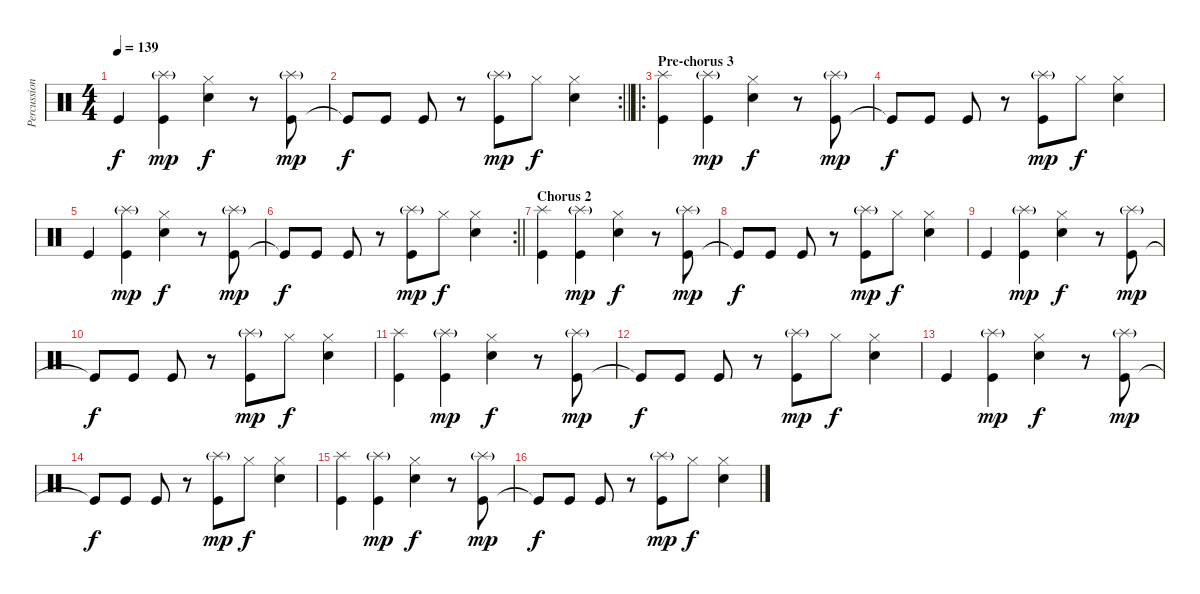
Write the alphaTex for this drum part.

\track ("Percussion" "Percussion") {instrument percussion}
\staff {score}
\articulation defaults
\ts (4 4)
\tempo 139
\clef neutral
\ks c "Kick (hit)".4{dy f}
("Kick (hit)" "Splash (hit)"{g}).4{dy mp} ("Snare (hit) 2" "Hi-Hat (closed)").4{dy f} r.8 ("Kick (hit)" "Splash (hit)"{g}).8{dy mp} |
\rc 2
\barLineRight lightlight "Kick (hit)"{t}.8{dy f} "Kick (hit)".8 "Kick (hit)".8
r.8 ("Kick (hit)" "Splash (hit)"{g}).8{dy mp} "Hi-Hat (closed)".8{dy f} ("Snare (hit) 2" "Hi-Hat (closed)").4 |
\ro
\section ("" "Pre-chorus 3")
("Kick (hit)" "Splash (hit)").4 ("Kick (hit)" "Splash (hit)"{g}).4{dy mp} ("Snare (hit) 2" "Hi-Hat (closed)").4{dy f} r.8 ("Kick (hit)" "Splash (hit)"{g}).8{dy mp} |
"Kick (hit)"{t}.8{dy f} "Kick (hit)".8 "Kick (hit)".8 r.8 ("Kick (hit)" "Splash (hit)"{g}).8{dy mp} "Hi-Hat (closed)".8{dy f} ("Snare (hit) 2" "Hi-Hat (closed)").4 |
"Kick (hit)".4 ("Kick (hit)" "Splash (hit)"{g}).4{dy mp} ("Snare (hit) 2" "Hi-Hat (closed)").4{dy f} r.8 ("Kick (hit)" "Splash (hit)"{g}).8{dy mp} |
\rc 2
\barLineRight lightlight "Kick (hit)"{t}.8{dy f} "Kick (hit)".8 "Kick (hit)".8
r.8 ("Kick (hit)" "Splash (hit)"{g}).8{dy mp} "Hi-Hat (closed)".8{dy f} ("Snare (hit) 2" "Hi-Hat (closed)").4 |
\section ("" "Chorus 2")
("Kick (hit)" "Splash (hit)").4 ("Kick (hit)" "Splash (hit)"{g}).4{dy mp} ("Snare (hit) 2" "Hi-Hat (closed)").4{dy f} r.8 ("Kick (hit)" "Splash (hit)"{g}).8{dy mp} |
"Kick (hit)"{t}.8{dy f} "Kick (hit)".8 "Kick (hit)".8 r.8 ("Kick (hit)" "Splash (hit)"{g}).8{dy mp} "Hi-Hat (closed)".8{dy f} ("Snare (hit) 2" "Hi-Hat (closed)").4 |
"Kick (hit)".4 ("Kick (hit)" "Splash (hit)"{g}).4{dy mp} ("Snare (hit) 2" "Hi-Hat (closed)").4{dy f} r.8 ("Kick (hit)" "Splash (hit)"{g}).8{dy mp} |
"Kick (hit)"{t}.8{dy f} "Kick (hit)".8 "Kick (hit)".8 r.8 ("Kick (hit)" "Splash (hit)"{g}).8{dy mp} "Hi-Hat (closed)".8{dy f} ("Snare (hit) 2" "Hi-Hat (closed)").4 |
("Kick (hit)" "Splash (hit)").4 ("Kick (hit)" "Splash (hit)"{g}).4{dy mp} ("Snare (hit) 2" "Hi-Hat (closed)").4{dy f} r.8 ("Kick (hit)" "Splash (hit)"{g}).8{dy mp} |
"Kick (hit)"{t}.8{dy f} "Kick (hit)".8 "Kick (hit)".8 r.8 ("Kick (hit)" "Splash (hit)"{g}).8{dy mp} "Hi-Hat (closed)".8{dy f} ("Snare (hit) 2" "Hi-Hat (closed)").4 |
"Kick (hit)".4 ("Kick (hit)" "Splash (hit)"{g}).4{dy mp} ("Snare (hit) 2" "Hi-Hat (closed)").4{dy f} r.8 ("Kick (hit)" "Splash (hit)"{g}).8{dy mp} |
"Kick (hit)"{t}.8{dy f} "Kick (hit)".8 "Kick (hit)".8 r.8 ("Kick (hit)" "Splash (hit)"{g}).8{dy mp} "Hi-Hat (closed)".8{dy f} ("Snare (hit) 2" "Hi-Hat (closed)").4 |
("Kick (hit)" "Splash (hit)").4 ("Kick (hit)" "Splash (hit)"{g}).4{dy mp} ("Snare (hit) 2" "Hi-Hat (closed)").4{dy f} r.8 ("Kick (hit)" "Splash (hit)"{g}).8{dy mp} |
"Kick (hit)"{t}.8{dy f} "Kick (hit)".8 "Kick (hit)".8 r.8 ("Kick (hit)" "Splash (hit)"{g}).8{dy mp} "Hi-Hat (closed)".8{dy f} ("Snare (hit) 2" "Hi-Hat (closed)").4
